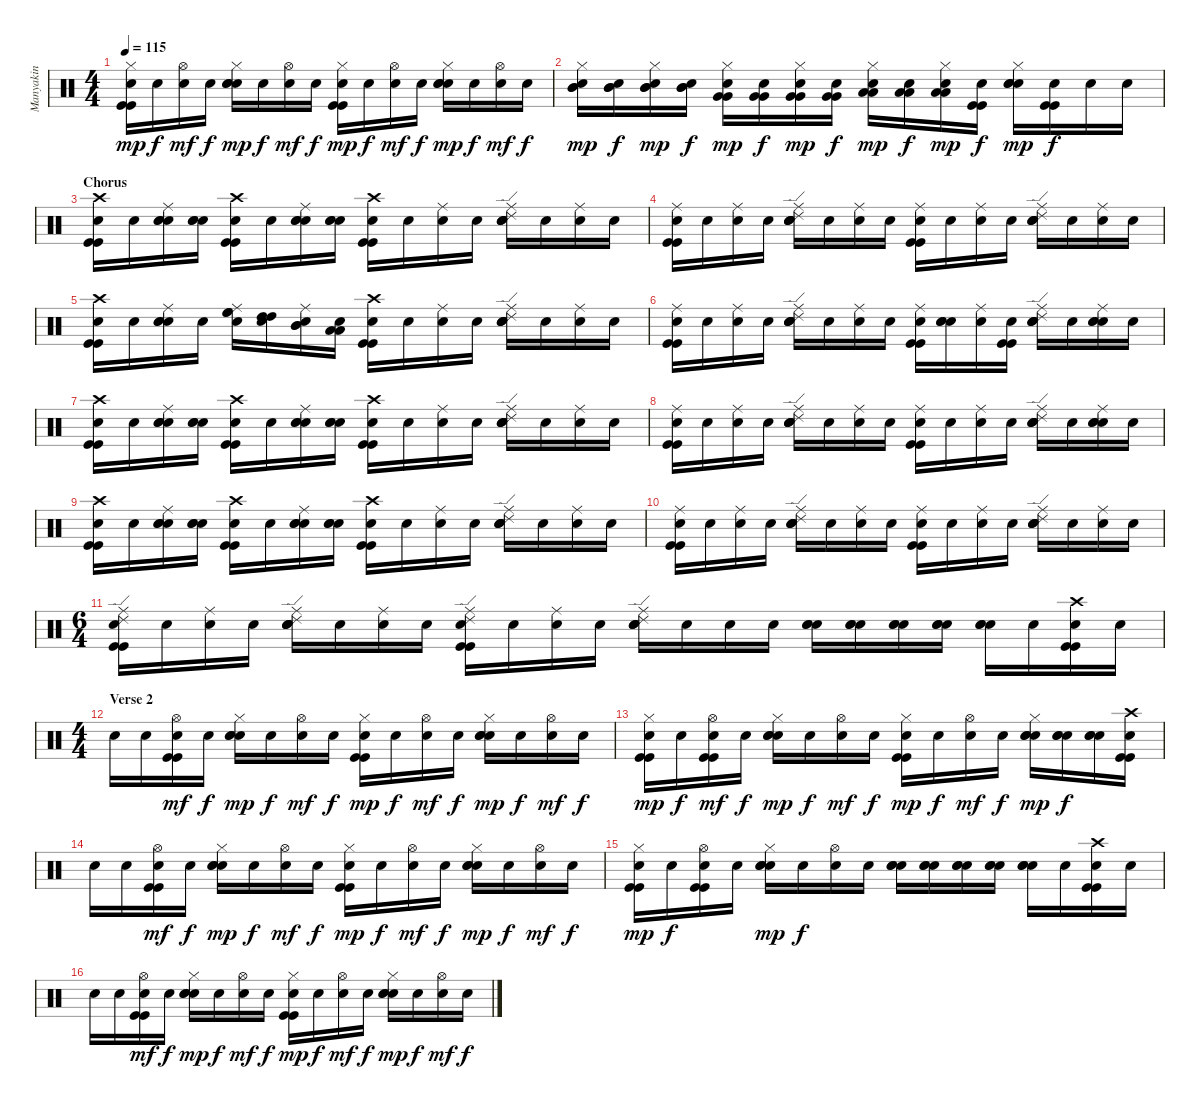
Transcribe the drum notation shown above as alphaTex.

\track ("Manyakin" "Manyakin") {instrument percussion}
\staff {score}
\articulation defaults
\ts (4 4)
\tempo 115
\clef neutral
\ks c
("Hi-Hat (closed)" "Kick (hit)" "Kick (hit)" "Snare (hit)"{x}).16{dy mp} "Snare (hit)"{x}.16{dy f} ("Hi-Hat (open)" "Snare (hit)"{x}).16{dy mf} "Snare (hit)"{x}.16{dy f} ("Hi-Hat (closed)" "Electric Snare (hit)" "Electric Snare (hit)" "Snare (hit)"{x}).16{dy mp} "Snare (hit)"{x}.16{dy f} ("Hi-Hat (open)" "Snare (hit)"{x}).16{dy mf} "Snare (hit)"{x}.16{dy f} ("Hi-Hat (closed)" "Kick (hit)" "Kick (hit)" "Snare (hit)"{x}).16{dy mp} "Snare (hit)"{x}.16{dy f} ("Hi-Hat (open)" "Snare (hit)"{x}).16{dy mf} "Snare (hit)"{x}.16{dy f} ("Hi-Hat (closed)" "Electric Snare (hit)" "Electric Snare (hit)" "Snare (hit)"{x}).16{dy mp} "Snare (hit)"{x}.16{dy f} ("Hi-Hat (open)" "Snare (hit)"{x}).16{dy mf} "Snare (hit)"{x}.16{dy f} |
("Hi-Hat (closed)" "Mid Tom (hit)" "Mid Tom (hit)" "Snare (hit)"{x}).16{dy mp} ("Mid Tom (hit)" "Mid Tom (hit)" "Snare (hit)"{x}).16{dy f} ("Hi-Hat (closed)" "Mid Tom (hit)" "Mid Tom (hit)" "Snare (hit)"{x}).16{dy mp} ("Mid Tom (hit)" "Mid Tom (hit)" "Snare (hit)"{x}).16{dy f} ("Hi-Hat (closed)" "Very Low Tom (hit)" "Very Low Tom (hit)" "Snare (hit)"{x}).16{dy mp} ("Very Low Tom (hit)" "Very Low Tom (hit)" "Snare (hit)"{x}).16{dy f} ("Hi-Hat (closed)" "Very Low Tom (hit)" "Very Low Tom (hit)" "Snare (hit)"{x}).16{dy mp} ("Very Low Tom (hit)" "Very Low Tom (hit)" "Snare (hit)"{x}).16{dy f} ("Hi-Hat (closed)" "Low Floor Tom (hit)" "Low Floor Tom (hit)" "Snare (hit)"{x}).16{dy mp} ("Low Floor Tom (hit)" "Low Floor Tom (hit)" "Snare (hit)"{x}).16{dy f} ("Hi-Hat (closed)" "Low Floor Tom (hit)" "Low Floor Tom (hit)" "Snare (hit)"{x}).16{dy mp} ("Kick (hit)" "Kick (hit)" "Snare (hit)"{x}).16{dy f} ("Hi-Hat (closed)" "Electric Snare (hit)" "Electric Snare (hit)" "Snare (hit)"{x}).16{dy mp} ("Kick (hit)" "Kick (hit)" "Snare (hit)"{x}).16{dy f} "Snare (hit)"{x}.16 "Snare (hit)"{x}.16 |
\section ("" "Chorus")
("Crash high (hit)" "Kick (hit)" "Kick (hit)" "Snare (hit)"{x}).16 "Snare (hit)"{x}.16 ("Ride (middle)" "Electric Snare (hit)" "Electric Snare (hit)" "Snare (hit)"{x}).16 ("Electric Snare (hit)" "Electric Snare (hit)" "Snare (hit)"{x}).16 ("Crash high (hit)" "Kick (hit)" "Kick (hit)" "Snare (hit)"{x}).16 "Snare (hit)"{x}.16 ("Ride (middle)" "Electric Snare (hit)" "Electric Snare (hit)" "Snare (hit)"{x}).16 ("Electric Snare (hit)" "Electric Snare (hit)" "Snare (hit)"{x}).16 ("Crash high (hit)" "Kick (hit)" "Kick (hit)" "Snare (hit)"{x}).16 "Snare (hit)"{x}.16 ("Ride (middle)" "Snare (hit)"{x}).16 "Snare (hit)"{x}.16 ("Ride (middle)" "Ride (edge) 2" "Electric Snare (hit)" "Electric Snare (hit)" "Snare (hit)"{x}).16 "Snare (hit)"{x}.16 ("Ride (middle)" "Snare (hit)"{x}).16 "Snare (hit)"{x}.16 |
("Ride (middle)" "Kick (hit)" "Kick (hit)" "Snare (hit)"{x}).16 "Snare (hit)"{x}.16 ("Ride (middle)" "Snare (hit)"{x}).16 "Snare (hit)"{x}.16 ("Ride (middle)" "Ride (edge) 2" "Electric Snare (hit)" "Electric Snare (hit)" "Snare (hit)"{x}).16 "Snare (hit)"{x}.16 ("Ride (middle)" "Snare (hit)"{x}).16 "Snare (hit)"{x}.16 ("Ride (middle)" "Kick (hit)" "Kick (hit)" "Snare (hit)"{x}).16 "Snare (hit)"{x}.16 ("Ride (middle)" "Snare (hit)"{x}).16 "Snare (hit)"{x}.16 ("Ride (middle)" "Ride (edge) 2" "Electric Snare (hit)" "Electric Snare (hit)" "Snare (hit)"{x}).16 "Snare (hit)"{x}.16 ("Ride (middle)" "Snare (hit)"{x}).16 "Snare (hit)"{x}.16 |
("Crash high (hit)" "Kick (hit)" "Kick (hit)" "Snare (hit)"{x}).16 "Snare (hit)"{x}.16 ("Ride (middle)" "Electric Snare (hit)" "Electric Snare (hit)" "Snare (hit)"{x}).16 "Snare (hit)"{x}.16 ("Ride (middle)" "High Floor Tom (hit)" "High Floor Tom (hit)" "Snare (hit)"{x}).16 ("High Tom (hit)" "High Tom (hit)" "Snare (hit)"{x}).16 ("Ride (middle)" "Mid Tom (hit)" "Mid Tom (hit)" "Snare (hit)"{x}).16 ("Low Tom (hit)" "Low Tom (hit)" "Snare (hit)"{x}).16 ("Crash high (hit)" "Kick (hit)" "Kick (hit)" "Snare (hit)"{x}).16 "Snare (hit)"{x}.16 ("Ride (middle)" "Snare (hit)"{x}).16 "Snare (hit)"{x}.16 ("Ride (middle)" "Ride (edge) 2" "Electric Snare (hit)" "Electric Snare (hit)" "Snare (hit)"{x}).16 "Snare (hit)"{x}.16 ("Ride (middle)" "Snare (hit)"{x}).16 "Snare (hit)"{x}.16 |
("Ride (middle)" "Kick (hit)" "Kick (hit)" "Snare (hit)"{x}).16 "Snare (hit)"{x}.16 ("Ride (middle)" "Snare (hit)"{x}).16 "Snare (hit)"{x}.16 ("Ride (middle)" "Ride (edge) 2" "Electric Snare (hit)" "Electric Snare (hit)" "Snare (hit)"{x}).16 "Snare (hit)"{x}.16 ("Ride (middle)" "Snare (hit)"{x}).16 "Snare (hit)"{x}.16 ("Ride (middle)" "Kick (hit)" "Kick (hit)" "Snare (hit)"{x}).16 ("Electric Snare (hit)" "Electric Snare (hit)" "Snare (hit)"{x}).16 ("Ride (middle)" "Snare (hit)"{x}).16 ("Kick (hit)" "Kick (hit)" "Snare (hit)"{x}).16 ("Ride (middle)" "Ride (edge) 2" "Electric Snare (hit)" "Electric Snare (hit)" "Snare (hit)"{x}).16 "Snare (hit)"{x}.16 ("Ride (middle)" "Electric Snare (hit)" "Electric Snare (hit)" "Snare (hit)"{x}).16 "Snare (hit)"{x}.16 |
("Crash high (hit)" "Kick (hit)" "Kick (hit)" "Snare (hit)"{x}).16 "Snare (hit)"{x}.16 ("Ride (middle)" "Electric Snare (hit)" "Electric Snare (hit)" "Snare (hit)"{x}).16 ("Electric Snare (hit)" "Electric Snare (hit)" "Snare (hit)"{x}).16 ("Crash high (hit)" "Kick (hit)" "Kick (hit)" "Snare (hit)"{x}).16 "Snare (hit)"{x}.16 ("Ride (middle)" "Electric Snare (hit)" "Electric Snare (hit)" "Snare (hit)"{x}).16 ("Electric Snare (hit)" "Electric Snare (hit)" "Snare (hit)"{x}).16 ("Crash high (hit)" "Kick (hit)" "Kick (hit)" "Snare (hit)"{x}).16 "Snare (hit)"{x}.16 ("Ride (middle)" "Snare (hit)"{x}).16 "Snare (hit)"{x}.16 ("Ride (middle)" "Ride (edge) 2" "Electric Snare (hit)" "Electric Snare (hit)" "Snare (hit)"{x}).16 "Snare (hit)"{x}.16 ("Ride (middle)" "Snare (hit)"{x}).16 "Snare (hit)"{x}.16 |
("Ride (middle)" "Kick (hit)" "Kick (hit)" "Snare (hit)"{x}).16 "Snare (hit)"{x}.16 ("Ride (middle)" "Snare (hit)"{x}).16 "Snare (hit)"{x}.16 ("Ride (middle)" "Ride (edge) 2" "Electric Snare (hit)" "Electric Snare (hit)" "Snare (hit)"{x}).16 "Snare (hit)"{x}.16 ("Ride (middle)" "Snare (hit)"{x}).16 "Snare (hit)"{x}.16 ("Ride (middle)" "Kick (hit)" "Kick (hit)" "Snare (hit)"{x}).16 "Snare (hit)"{x}.16 ("Ride (middle)" "Snare (hit)"{x}).16 "Snare (hit)"{x}.16 ("Ride (middle)" "Ride (edge) 2" "Electric Snare (hit)" "Electric Snare (hit)" "Snare (hit)"{x}).16 "Snare (hit)"{x}.16 ("Ride (middle)" "Electric Snare (hit)" "Electric Snare (hit)" "Snare (hit)"{x}).16 "Snare (hit)"{x}.16 |
("Crash high (hit)" "Kick (hit)" "Kick (hit)" "Snare (hit)"{x}).16 "Snare (hit)"{x}.16 ("Ride (middle)" "Electric Snare (hit)" "Electric Snare (hit)" "Snare (hit)"{x}).16 ("Electric Snare (hit)" "Electric Snare (hit)" "Snare (hit)"{x}).16 ("Crash high (hit)" "Kick (hit)" "Kick (hit)" "Snare (hit)"{x}).16 "Snare (hit)"{x}.16 ("Ride (middle)" "Electric Snare (hit)" "Electric Snare (hit)" "Snare (hit)"{x}).16 ("Electric Snare (hit)" "Electric Snare (hit)" "Snare (hit)"{x}).16 ("Crash high (hit)" "Kick (hit)" "Kick (hit)" "Snare (hit)"{x}).16 "Snare (hit)"{x}.16 ("Ride (middle)" "Snare (hit)"{x}).16 "Snare (hit)"{x}.16 ("Ride (middle)" "Ride (edge) 2" "Electric Snare (hit)" "Electric Snare (hit)" "Snare (hit)"{x}).16 "Snare (hit)"{x}.16 ("Ride (middle)" "Snare (hit)"{x}).16 "Snare (hit)"{x}.16 |
("Ride (middle)" "Kick (hit)" "Kick (hit)" "Snare (hit)"{x}).16 "Snare (hit)"{x}.16 ("Ride (middle)" "Snare (hit)"{x}).16 "Snare (hit)"{x}.16 ("Ride (middle)" "Ride (edge) 2" "Electric Snare (hit)" "Electric Snare (hit)" "Snare (hit)"{x}).16 "Snare (hit)"{x}.16 ("Ride (middle)" "Snare (hit)"{x}).16 "Snare (hit)"{x}.16 ("Ride (middle)" "Kick (hit)" "Kick (hit)" "Snare (hit)"{x}).16 "Snare (hit)"{x}.16 ("Ride (middle)" "Snare (hit)"{x}).16 "Snare (hit)"{x}.16 ("Ride (middle)" "Ride (edge) 2" "Electric Snare (hit)" "Electric Snare (hit)" "Snare (hit)"{x}).16 "Snare (hit)"{x}.16 ("Ride (middle)" "Snare (hit)"{x}).16 "Snare (hit)"{x}.16 |
\ts (6 4)
("Ride (middle)" "Ride (edge) 2" "Kick (hit)" "Kick (hit)" "Snare (hit)"{x}).16 "Snare (hit)"{x}.16 ("Ride (middle)" "Snare (hit)"{x}).16 "Snare (hit)"{x}.16 ("Ride (middle)" "Ride (edge) 2" "Electric Snare (hit)" "Electric Snare (hit)" "Snare (hit)"{x}).16 "Snare (hit)"{x}.16 ("Ride (middle)" "Snare (hit)"{x}).16 "Snare (hit)"{x}.16 ("Ride (middle)" "Ride (edge) 2" "Kick (hit)" "Kick (hit)" "Snare (hit)"{x}).16 "Snare (hit)"{x}.16 ("Ride (middle)" "Snare (hit)"{x}).16 "Snare (hit)"{x}.16 ("Ride (middle)" "Ride (edge) 2" "Electric Snare (hit)" "Electric Snare (hit)" "Snare (hit)"{x}).16 "Snare (hit)"{x}.16 "Snare (hit)"{x}.16 "Snare (hit)"{x}.16 ("Electric Snare (hit)" "Electric Snare (hit)" "Snare (hit)"{x}).16 ("Electric Snare (hit)" "Electric Snare (hit)" "Snare (hit)"{x}).16 ("Electric Snare (hit)" "Electric Snare (hit)" "Snare (hit)"{x}).16 ("Electric Snare (hit)" "Electric Snare (hit)" "Snare (hit)"{x}).16 ("Electric Snare (hit)" "Electric Snare (hit)" "Snare (hit)"{x}).16 "Snare (hit)"{x}.16 ("Crash high (hit)" "Kick (hit)" "Kick (hit)" "Snare (hit)"{x}).16 "Snare (hit)"{x}.16 |
\ts (4 4)
\section ("" "Verse 2")
"Snare (hit)"{x}.16 "Snare (hit)"{x}.16 ("Hi-Hat (open)" "Kick (hit)" "Kick (hit)" "Snare (hit)"{x}).16{dy mf} "Snare (hit)"{x}.16{dy f} ("Hi-Hat (closed)" "Electric Snare (hit)" "Electric Snare (hit)" "Snare (hit)"{x}).16{dy mp} "Snare (hit)"{x}.16{dy f} ("Hi-Hat (open)" "Snare (hit)"{x}).16{dy mf} "Snare (hit)"{x}.16{dy f} ("Hi-Hat (closed)" "Kick (hit)" "Kick (hit)" "Snare (hit)"{x}).16{dy mp} "Snare (hit)"{x}.16{dy f} ("Hi-Hat (open)" "Snare (hit)"{x}).16{dy mf} "Snare (hit)"{x}.16{dy f} ("Hi-Hat (closed)" "Electric Snare (hit)" "Electric Snare (hit)" "Snare (hit)"{x}).16{dy mp} "Snare (hit)"{x}.16{dy f} ("Hi-Hat (open)" "Snare (hit)"{x}).16{dy mf} "Snare (hit)"{x}.16{dy f} |
("Hi-Hat (closed)" "Kick (hit)" "Kick (hit)" "Snare (hit)"{x}).16{dy mp} "Snare (hit)"{x}.16{dy f} ("Hi-Hat (open)" "Kick (hit)" "Kick (hit)" "Snare (hit)"{x}).16{dy mf} "Snare (hit)"{x}.16{dy f} ("Hi-Hat (closed)" "Electric Snare (hit)" "Electric Snare (hit)" "Snare (hit)"{x}).16{dy mp} "Snare (hit)"{x}.16{dy f} ("Hi-Hat (open)" "Snare (hit)"{x}).16{dy mf} "Snare (hit)"{x}.16{dy f} ("Hi-Hat (closed)" "Kick (hit)" "Kick (hit)" "Snare (hit)"{x}).16{dy mp} "Snare (hit)"{x}.16{dy f} ("Hi-Hat (open)" "Snare (hit)"{x}).16{dy mf} "Snare (hit)"{x}.16{dy f} ("Hi-Hat (closed)" "Electric Snare (hit)" "Electric Snare (hit)" "Snare (hit)"{x}).16{dy mp} ("Electric Snare (hit)" "Electric Snare (hit)" "Snare (hit)"{x}).16{dy f} ("Electric Snare (hit)" "Electric Snare (hit)" "Snare (hit)"{x}).16 ("Crash high (hit)" "Kick (hit)" "Kick (hit)" "Snare (hit)"{x}).16 |
"Snare (hit)"{x}.16 "Snare (hit)"{x}.16 ("Hi-Hat (open)" "Kick (hit)" "Kick (hit)" "Snare (hit)"{x}).16{dy mf} "Snare (hit)"{x}.16{dy f} ("Hi-Hat (closed)" "Electric Snare (hit)" "Electric Snare (hit)" "Snare (hit)"{x}).16{dy mp} "Snare (hit)"{x}.16{dy f} ("Hi-Hat (open)" "Snare (hit)"{x}).16{dy mf} "Snare (hit)"{x}.16{dy f} ("Hi-Hat (closed)" "Kick (hit)" "Kick (hit)" "Snare (hit)"{x}).16{dy mp} "Snare (hit)"{x}.16{dy f} ("Hi-Hat (open)" "Snare (hit)"{x}).16{dy mf} "Snare (hit)"{x}.16{dy f} ("Hi-Hat (closed)" "Electric Snare (hit)" "Electric Snare (hit)" "Snare (hit)"{x}).16{dy mp} "Snare (hit)"{x}.16{dy f} ("Hi-Hat (open)" "Snare (hit)"{x}).16{dy mf} "Snare (hit)"{x}.16{dy f} |
("Hi-Hat (closed)" "Kick (hit)" "Kick (hit)" "Snare (hit)"{x}).16{dy mp} "Snare (hit)"{x}.16{dy f} ("Hi-Hat (open)" "Kick (hit)" "Kick (hit)" "Snare (hit)"{x}).16 "Snare (hit)"{x}.16 ("Hi-Hat (closed)" "Electric Snare (hit)" "Electric Snare (hit)" "Snare (hit)"{x}).16{dy mp} "Snare (hit)"{x}.16{dy f} ("Hi-Hat (open)" "Snare (hit)"{x}).16 "Snare (hit)"{x}.16 ("Electric Snare (hit)" "Electric Snare (hit)" "Snare (hit)"{x}).16 ("Electric Snare (hit)" "Electric Snare (hit)" "Snare (hit)"{x}).16 ("Electric Snare (hit)" "Electric Snare (hit)" "Snare (hit)"{x}).16 ("Electric Snare (hit)" "Electric Snare (hit)" "Snare (hit)"{x}).16 ("Electric Snare (hit)" "Electric Snare (hit)" "Snare (hit)"{x}).16 "Snare (hit)"{x}.16 ("Crash high (hit)" "Kick (hit)" "Kick (hit)" "Snare (hit)"{x}).16 "Snare (hit)"{x}.16 |
"Snare (hit)"{x}.16 "Snare (hit)"{x}.16 ("Hi-Hat (open)" "Kick (hit)" "Kick (hit)" "Snare (hit)"{x}).16{dy mf} "Snare (hit)"{x}.16{dy f} ("Hi-Hat (closed)" "Electric Snare (hit)" "Electric Snare (hit)" "Snare (hit)"{x}).16{dy mp} "Snare (hit)"{x}.16{dy f} ("Hi-Hat (open)" "Snare (hit)"{x}).16{dy mf} "Snare (hit)"{x}.16{dy f} ("Hi-Hat (closed)" "Kick (hit)" "Kick (hit)" "Snare (hit)"{x}).16{dy mp} "Snare (hit)"{x}.16{dy f} ("Hi-Hat (open)" "Snare (hit)"{x}).16{dy mf} "Snare (hit)"{x}.16{dy f} ("Hi-Hat (closed)" "Electric Snare (hit)" "Electric Snare (hit)" "Snare (hit)"{x}).16{dy mp} "Snare (hit)"{x}.16{dy f} ("Hi-Hat (open)" "Snare (hit)"{x}).16{dy mf} "Snare (hit)"{x}.16{dy f}
